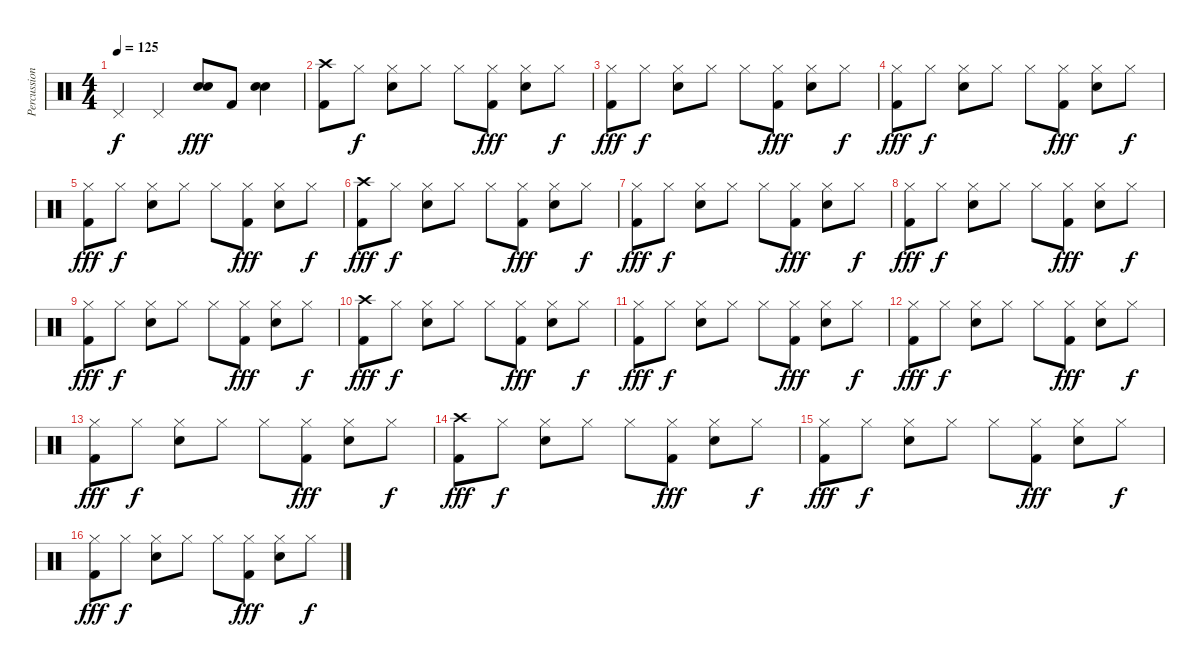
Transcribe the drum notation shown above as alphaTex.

\track ("Percussions" "Percussion") {instrument percussion}
\staff {score}
\articulation defaults
\ts (4 4)
\tempo 125
\clef neutral
\ks c "Pedal Hi-Hat (hit)".4{dy f} "Pedal Hi-Hat (hit)".4
("Electric Snare (hit)" "Electric Snare (hit)").8{bd 120 dy fff} "Kick (hit) 2".8 ("Electric Snare (hit)" "Electric Snare (hit)").4{bd 120} |
("Crash high (hit)" "Kick (hit) 2").8 "Hi-Hat (closed)".8{dy f} ("Electric Snare (hit)" "Hi-Hat (closed)").8 "Hi-Hat (closed)".8 "Hi-Hat (closed)".8 ("Hi-Hat (closed)" "Kick (hit) 2").8{dy fff} ("Hi-Hat (closed)" "Electric Snare (hit)").8 "Hi-Hat (closed)".8{dy f} |
("Hi-Hat (closed)" "Kick (hit) 2").8{dy fff} "Hi-Hat (closed)".8{dy f} ("Electric Snare (hit)" "Hi-Hat (closed)").8 "Hi-Hat (closed)".8 "Hi-Hat (closed)".8 ("Hi-Hat (closed)" "Kick (hit) 2").8{dy fff} ("Hi-Hat (closed)" "Electric Snare (hit)").8 "Hi-Hat (closed)".8{dy f} |
("Hi-Hat (closed)" "Kick (hit) 2").8{dy fff} "Hi-Hat (closed)".8{dy f} ("Electric Snare (hit)" "Hi-Hat (closed)").8 "Hi-Hat (closed)".8 "Hi-Hat (closed)".8 ("Hi-Hat (closed)" "Kick (hit) 2").8{dy fff} ("Hi-Hat (closed)" "Electric Snare (hit)").8 "Hi-Hat (closed)".8{dy f} |
("Hi-Hat (closed)" "Kick (hit) 2").8{dy fff} "Hi-Hat (closed)".8{dy f} ("Electric Snare (hit)" "Hi-Hat (closed)").8 "Hi-Hat (closed)".8 "Hi-Hat (closed)".8 ("Hi-Hat (closed)" "Kick (hit) 2").8{dy fff} ("Hi-Hat (closed)" "Electric Snare (hit)").8 "Hi-Hat (closed)".8{dy f} |
("Crash high (hit)" "Kick (hit) 2").8{dy fff} "Hi-Hat (closed)".8{dy f} ("Electric Snare (hit)" "Hi-Hat (closed)").8 "Hi-Hat (closed)".8 "Hi-Hat (closed)".8 ("Hi-Hat (closed)" "Kick (hit) 2").8{dy fff} ("Hi-Hat (closed)" "Electric Snare (hit)").8 "Hi-Hat (closed)".8{dy f} |
("Hi-Hat (closed)" "Kick (hit) 2").8{dy fff} "Hi-Hat (closed)".8{dy f} ("Electric Snare (hit)" "Hi-Hat (closed)").8 "Hi-Hat (closed)".8 "Hi-Hat (closed)".8 ("Hi-Hat (closed)" "Kick (hit) 2").8{dy fff} ("Hi-Hat (closed)" "Electric Snare (hit)").8 "Hi-Hat (closed)".8{dy f} |
("Hi-Hat (closed)" "Kick (hit) 2").8{dy fff} "Hi-Hat (closed)".8{dy f} ("Electric Snare (hit)" "Hi-Hat (closed)").8 "Hi-Hat (closed)".8 "Hi-Hat (closed)".8 ("Hi-Hat (closed)" "Kick (hit) 2").8{dy fff} ("Hi-Hat (closed)" "Electric Snare (hit)").8 "Hi-Hat (closed)".8{dy f} |
("Hi-Hat (closed)" "Kick (hit) 2").8{dy fff} "Hi-Hat (closed)".8{dy f} ("Electric Snare (hit)" "Hi-Hat (closed)").8 "Hi-Hat (closed)".8 "Hi-Hat (closed)".8 ("Hi-Hat (closed)" "Kick (hit) 2").8{dy fff} ("Hi-Hat (closed)" "Electric Snare (hit)").8 "Hi-Hat (closed)".8{dy f} |
("Crash high (hit)" "Kick (hit) 2").8{dy fff} "Hi-Hat (closed)".8{dy f} ("Electric Snare (hit)" "Hi-Hat (closed)").8 "Hi-Hat (closed)".8 "Hi-Hat (closed)".8 ("Hi-Hat (closed)" "Kick (hit) 2").8{dy fff} ("Hi-Hat (closed)" "Electric Snare (hit)").8 "Hi-Hat (closed)".8{dy f} |
("Hi-Hat (closed)" "Kick (hit) 2").8{dy fff} "Hi-Hat (closed)".8{dy f} ("Electric Snare (hit)" "Hi-Hat (closed)").8 "Hi-Hat (closed)".8 "Hi-Hat (closed)".8 ("Hi-Hat (closed)" "Kick (hit) 2").8{dy fff} ("Hi-Hat (closed)" "Electric Snare (hit)").8 "Hi-Hat (closed)".8{dy f} |
("Hi-Hat (closed)" "Kick (hit) 2").8{dy fff} "Hi-Hat (closed)".8{dy f} ("Electric Snare (hit)" "Hi-Hat (closed)").8 "Hi-Hat (closed)".8 "Hi-Hat (closed)".8 ("Hi-Hat (closed)" "Kick (hit) 2").8{dy fff} ("Hi-Hat (closed)" "Electric Snare (hit)").8 "Hi-Hat (closed)".8{dy f} |
("Hi-Hat (closed)" "Kick (hit) 2").8{dy fff} "Hi-Hat (closed)".8{dy f} ("Electric Snare (hit)" "Hi-Hat (closed)").8 "Hi-Hat (closed)".8 "Hi-Hat (closed)".8 ("Hi-Hat (closed)" "Kick (hit) 2").8{dy fff} ("Hi-Hat (closed)" "Electric Snare (hit)").8 "Hi-Hat (closed)".8{dy f} |
("Crash high (hit)" "Kick (hit) 2").8{dy fff} "Hi-Hat (closed)".8{dy f} ("Electric Snare (hit)" "Hi-Hat (closed)").8 "Hi-Hat (closed)".8 "Hi-Hat (closed)".8 ("Hi-Hat (closed)" "Kick (hit) 2").8{dy fff} ("Hi-Hat (closed)" "Electric Snare (hit)").8 "Hi-Hat (closed)".8{dy f} |
("Hi-Hat (closed)" "Kick (hit) 2").8{dy fff} "Hi-Hat (closed)".8{dy f} ("Electric Snare (hit)" "Hi-Hat (closed)").8 "Hi-Hat (closed)".8 "Hi-Hat (closed)".8 ("Hi-Hat (closed)" "Kick (hit) 2").8{dy fff} ("Hi-Hat (closed)" "Electric Snare (hit)").8 "Hi-Hat (closed)".8{dy f} |
("Hi-Hat (closed)" "Kick (hit) 2").8{dy fff} "Hi-Hat (closed)".8{dy f} ("Electric Snare (hit)" "Hi-Hat (closed)").8 "Hi-Hat (closed)".8 "Hi-Hat (closed)".8 ("Hi-Hat (closed)" "Kick (hit) 2").8{dy fff} ("Hi-Hat (closed)" "Electric Snare (hit)").8 "Hi-Hat (closed)".8{dy f}
